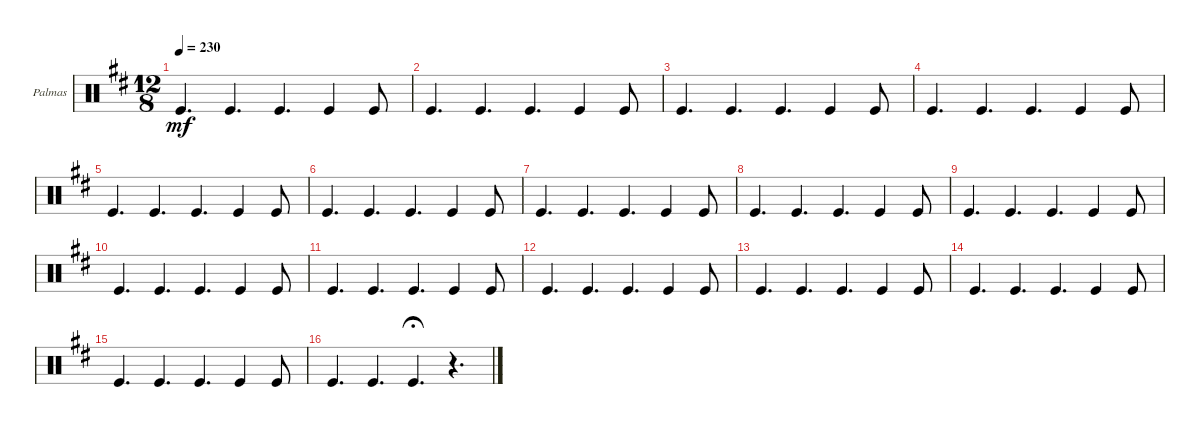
\defaultSystemsLayout 4
\bracketExtendMode groupsimilarinstruments
\firstSystemTrackNameOrientation horizontal
\otherSystemsTrackNameOrientation horizontal
\track ("Palmas" "Palmas") {instrument percussion}
\staff {score}
\articulation defaults
\ts (12 8)
\tempo 230
\clef neutral
\scale
0.333333
\ks d "Kick (hit)".4{d dy mf} "Kick (hit)".4{d} "Kick (hit)".4{d} "Kick (hit)".4 "Kick (hit)".8
|
\scale
0.333333 "Kick (hit)".4{d} "Kick (hit)".4{d} "Kick (hit)".4{d} "Kick (hit)".4 "Kick (hit)".8 |
\scale
0.333333 "Kick (hit)".4{d} "Kick (hit)".4{d} "Kick (hit)".4{d} "Kick (hit)".4 "Kick (hit)".8 |
\scale
0.333333 "Kick (hit)".4{d} "Kick (hit)".4{d} "Kick (hit)".4{d} "Kick (hit)".4 "Kick (hit)".8 |
\scale
0.333333 "Kick (hit)".4{d} "Kick (hit)".4{d} "Kick (hit)".4{d} "Kick (hit)".4 "Kick (hit)".8 |
\scale
0.333333 "Kick (hit)".4{d} "Kick (hit)".4{d} "Kick (hit)".4{d} "Kick (hit)".4 "Kick (hit)".8 |
\scale
0.333333 "Kick (hit)".4{d} "Kick (hit)".4{d} "Kick (hit)".4{d} "Kick (hit)".4 "Kick (hit)".8 |
\scale
0.333333 "Kick (hit)".4{d} "Kick (hit)".4{d} "Kick (hit)".4{d} "Kick (hit)".4 "Kick (hit)".8 |
\scale
0.333333 "Kick (hit)".4{d} "Kick (hit)".4{d} "Kick (hit)".4{d} "Kick (hit)".4 "Kick (hit)".8 |
\scale
0.333333 "Kick (hit)".4{d} "Kick (hit)".4{d} "Kick (hit)".4{d} "Kick (hit)".4 "Kick (hit)".8 |
\scale
0.333333 "Kick (hit)".4{d} "Kick (hit)".4{d} "Kick (hit)".4{d} "Kick (hit)".4 "Kick (hit)".8 |
\scale
0.333333 "Kick (hit)".4{d} "Kick (hit)".4{d} "Kick (hit)".4{d} "Kick (hit)".4 "Kick (hit)".8 |
\scale
0.333333 "Kick (hit)".4{d} "Kick (hit)".4{d} "Kick (hit)".4{d} "Kick (hit)".4 "Kick (hit)".8 |
\scale
0.333333 "Kick (hit)".4{d} "Kick (hit)".4{d} "Kick (hit)".4{d} "Kick (hit)".4 "Kick (hit)".8 |
\scale
0.333333 "Kick (hit)".4{d} "Kick (hit)".4{d} "Kick (hit)".4{d} "Kick (hit)".4 "Kick (hit)".8 |
\scale
0.333333 "Kick (hit)".4{d} "Kick (hit)".4{d} "Kick (hit)".4{d fermata (medium 1)} r.4{d}
